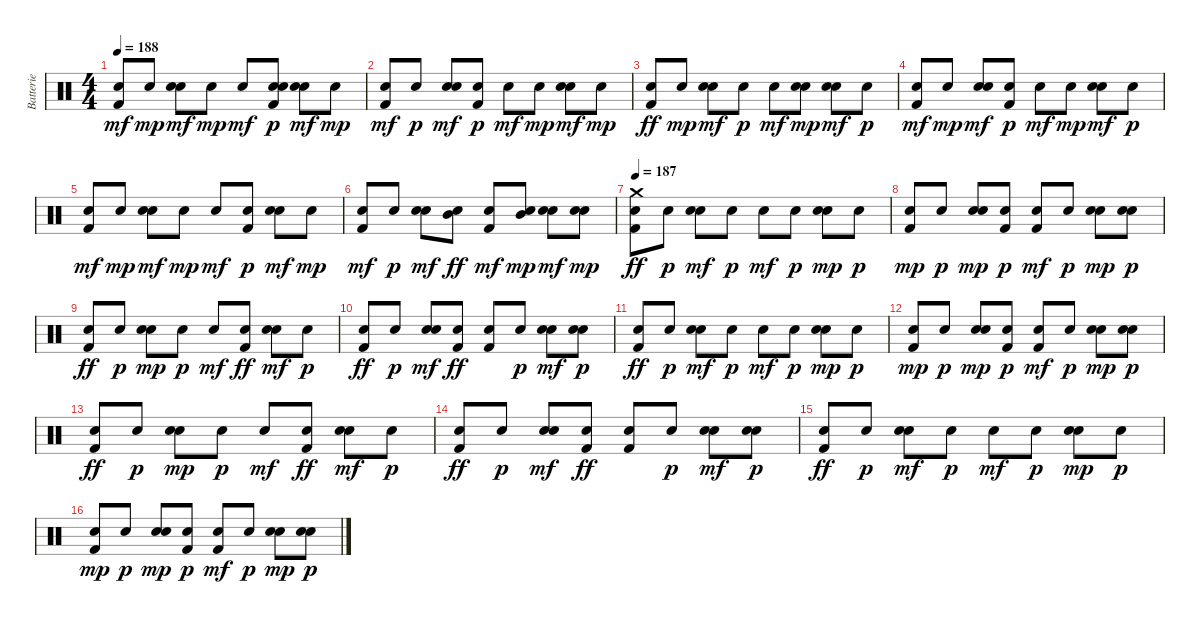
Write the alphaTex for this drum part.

\track ("Batterie            " "Batterie  ") {instrument percussion}
\staff {score}
\articulation defaults
\ts (4 4)
\tempo 188
\clef neutral
\ks c
("Kick (hit) 2" "Snare (hit) 2").8{dy mf} "Snare (hit) 2".8{dy mp} ("Hand Clap (hit)" "Snare (hit) 2").8{dy mf} "Snare (hit) 2".8{dy mp} "Snare (hit) 2".8{dy mf} ("Hand Clap (hit)" "Kick (hit) 2" "Snare (hit) 2").8{dy p} ("Hand Clap (hit)" "Snare (hit) 2").8{dy mf} "Snare (hit) 2".8{dy mp} |
("Kick (hit) 2" "Snare (hit) 2").8{dy mf} "Snare (hit) 2".8{dy p} ("Hand Clap (hit)" "Snare (hit) 2").8{dy mf} ("Kick (hit) 2" "Snare (hit) 2").8{dy p} "Snare (hit) 2".8{dy mf} "Snare (hit) 2".8{dy mp} ("Hand Clap (hit)" "Snare (hit) 2").8{dy mf} "Snare (hit) 2".8{dy mp} |
("Kick (hit) 2" "Snare (hit) 2").8{dy ff} "Snare (hit) 2".8{dy mp} ("Hand Clap (hit)" "Snare (hit) 2").8{dy mf} "Snare (hit) 2".8{dy p} "Snare (hit) 2".8{dy mf} ("Hand Clap (hit)" "Snare (hit) 2").8{dy mp} ("Hand Clap (hit)" "Snare (hit) 2").8{dy mf} "Snare (hit) 2".8{dy p} |
("Kick (hit) 2" "Snare (hit) 2").8{dy mf} "Snare (hit) 2".8{dy mp} ("Hand Clap (hit)" "Snare (hit) 2").8{dy mf} ("Kick (hit) 2" "Snare (hit) 2").8{dy p} "Snare (hit) 2".8{dy mf} "Snare (hit) 2".8{dy mp} ("Hand Clap (hit)" "Snare (hit) 2").8{dy mf} "Snare (hit) 2".8{dy p} |
("Kick (hit) 2" "Snare (hit) 2").8{dy mf} "Snare (hit) 2".8{dy mp} ("Hand Clap (hit)" "Snare (hit) 2").8{dy mf} "Snare (hit) 2".8{dy mp} "Snare (hit) 2".8{dy mf} ("Kick (hit) 2" "Snare (hit) 2").8{dy p} ("Hand Clap (hit)" "Snare (hit) 2").8{dy mf} "Snare (hit) 2".8{dy mp} |
("Kick (hit) 2" "Snare (hit) 2").8{dy mf} "Snare (hit) 2".8{dy p} ("Hand Clap (hit)" "Snare (hit) 2").8{dy mf} ("Snare (hit) 2" "Mid Tom (hit)").8{dy ff} ("Kick (hit) 2" "Snare (hit) 2").8{dy mf} ("Mid Tom (hit)" "Snare (hit) 2").8{dy mp} ("Hand Clap (hit)" "Snare (hit) 2").8{dy mf} ("Hand Clap (hit)" "Snare (hit) 2").8{dy mp} |
\tempo 187
("Crash medium (hit)" "Snare (hit) 2" "Kick (hit) 2").8{dy ff} "Snare (hit) 2".8{dy p} ("Hand Clap (hit)" "Snare (hit) 2").8{dy mf} "Snare (hit) 2".8{dy p} "Snare (hit) 2".8{dy mf} "Snare (hit) 2".8{dy p} ("Hand Clap (hit)" "Snare (hit) 2").8{dy mp} "Snare (hit) 2".8{dy p} |
("Snare (hit) 2" "Kick (hit) 2").8{dy mp} "Snare (hit) 2".8{dy p} ("Hand Clap (hit)" "Snare (hit) 2").8{dy mp} ("Snare (hit) 2" "Kick (hit) 2").8{dy p} ("Snare (hit) 2" "Kick (hit) 2").8{dy mf} "Snare (hit) 2".8{dy p} ("Hand Clap (hit)" "Snare (hit) 2").8{dy mp} ("Hand Clap (hit)" "Snare (hit) 2").8{dy p} |
("Snare (hit) 2" "Kick (hit) 2").8{dy ff} "Snare (hit) 2".8{dy p} ("Hand Clap (hit)" "Snare (hit) 2").8{dy mp} "Snare (hit) 2".8{dy p} "Snare (hit) 2".8{dy mf} ("Snare (hit) 2" "Kick (hit) 2").8{dy ff} ("Hand Clap (hit)" "Snare (hit) 2").8{dy mf} "Snare (hit) 2".8{dy p} |
("Snare (hit) 2" "Kick (hit) 2").8{dy ff} "Snare (hit) 2".8{dy p} ("Hand Clap (hit)" "Snare (hit) 2").8{dy mf} ("Snare (hit) 2" "Kick (hit) 2").8{dy ff} ("Snare (hit) 2" "Kick (hit) 2").8 "Snare (hit) 2".8{dy p} ("Hand Clap (hit)" "Snare (hit) 2").8{dy mf} ("Hand Clap (hit)" "Snare (hit) 2").8{dy p} |
("Snare (hit) 2" "Kick (hit) 2").8{dy ff} "Snare (hit) 2".8{dy p} ("Hand Clap (hit)" "Snare (hit) 2").8{dy mf} "Snare (hit) 2".8{dy p} "Snare (hit) 2".8{dy mf} "Snare (hit) 2".8{dy p} ("Hand Clap (hit)" "Snare (hit) 2").8{dy mp} "Snare (hit) 2".8{dy p} |
("Snare (hit) 2" "Kick (hit) 2").8{dy mp} "Snare (hit) 2".8{dy p} ("Hand Clap (hit)" "Snare (hit) 2").8{dy mp} ("Snare (hit) 2" "Kick (hit) 2").8{dy p} ("Snare (hit) 2" "Kick (hit) 2").8{dy mf} "Snare (hit) 2".8{dy p} ("Hand Clap (hit)" "Snare (hit) 2").8{dy mp} ("Hand Clap (hit)" "Snare (hit) 2").8{dy p} |
("Snare (hit) 2" "Kick (hit) 2").8{dy ff} "Snare (hit) 2".8{dy p} ("Hand Clap (hit)" "Snare (hit) 2").8{dy mp} "Snare (hit) 2".8{dy p} "Snare (hit) 2".8{dy mf} ("Snare (hit) 2" "Kick (hit) 2").8{dy ff} ("Hand Clap (hit)" "Snare (hit) 2").8{dy mf} "Snare (hit) 2".8{dy p} |
("Snare (hit) 2" "Kick (hit) 2").8{dy ff} "Snare (hit) 2".8{dy p} ("Hand Clap (hit)" "Snare (hit) 2").8{dy mf} ("Snare (hit) 2" "Kick (hit) 2").8{dy ff} ("Snare (hit) 2" "Kick (hit) 2").8 "Snare (hit) 2".8{dy p} ("Hand Clap (hit)" "Snare (hit) 2").8{dy mf} ("Hand Clap (hit)" "Snare (hit) 2").8{dy p} |
("Snare (hit) 2" "Kick (hit) 2").8{dy ff} "Snare (hit) 2".8{dy p} ("Hand Clap (hit)" "Snare (hit) 2").8{dy mf} "Snare (hit) 2".8{dy p} "Snare (hit) 2".8{dy mf} "Snare (hit) 2".8{dy p} ("Hand Clap (hit)" "Snare (hit) 2").8{dy mp} "Snare (hit) 2".8{dy p} |
("Snare (hit) 2" "Kick (hit) 2").8{dy mp} "Snare (hit) 2".8{dy p} ("Hand Clap (hit)" "Snare (hit) 2").8{dy mp} ("Snare (hit) 2" "Kick (hit) 2").8{dy p} ("Snare (hit) 2" "Kick (hit) 2").8{dy mf} "Snare (hit) 2".8{dy p} ("Hand Clap (hit)" "Snare (hit) 2").8{dy mp} ("Hand Clap (hit)" "Snare (hit) 2").8{dy p}
